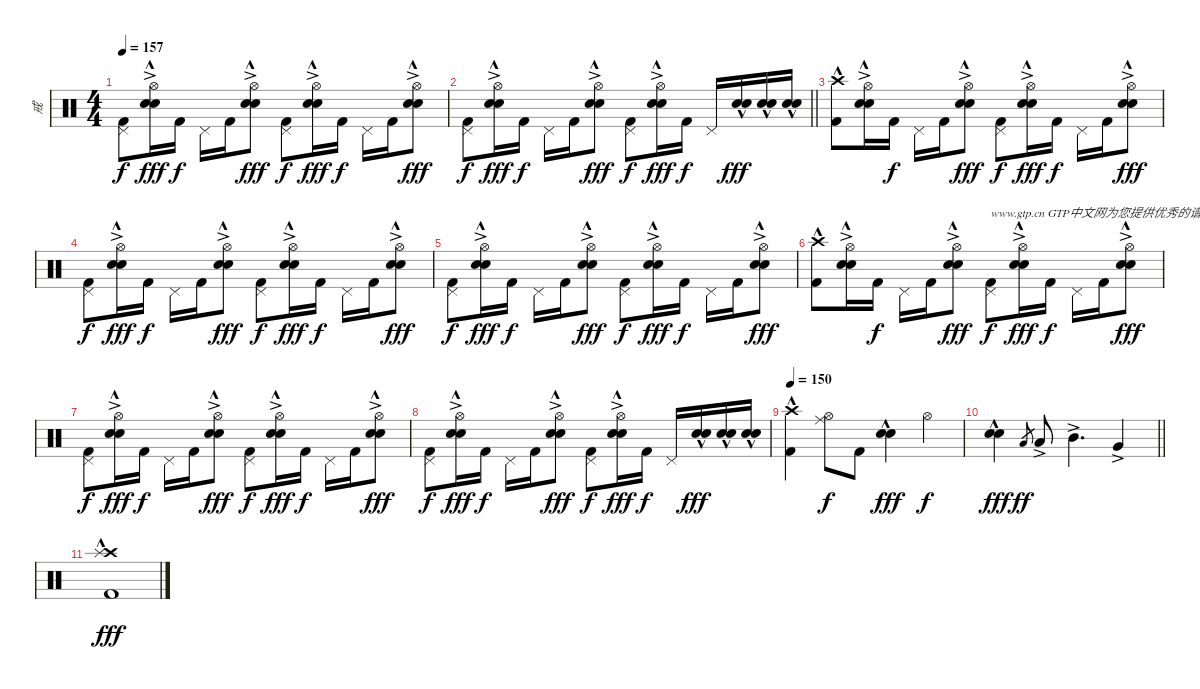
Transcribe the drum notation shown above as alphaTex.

\track ("戒" "戒") {instrument percussion}
\staff {score}
\articulation defaults
\ts (4 4)
\tempo 157
\clef neutral
\ks c
("Pedal Hi-Hat (hit)" "Kick (hit) 2").8{dy f} ("Hi-Hat (open)"{ac} "Electric Snare (hit)"{hac} "Snare (hit) 2").16{dy fff} "Kick (hit) 2".16{dy f} "Pedal Hi-Hat (hit)".16 "Kick (hit) 2".16 ("Hi-Hat (open)"{ac} "Electric Snare (hit)"{hac} "Snare (hit) 2").8{dy fff} ("Pedal Hi-Hat (hit)" "Kick (hit) 2").8{dy f} ("Hi-Hat (open)"{ac} "Electric Snare (hit)"{hac} "Snare (hit) 2").16{dy fff} "Kick (hit) 2".16{dy f} "Pedal Hi-Hat (hit)".16 "Kick (hit) 2".16 ("Hi-Hat (open)"{ac} "Electric Snare (hit)"{hac} "Snare (hit) 2").8{dy fff} |
\barLineRight lightlight
("Pedal Hi-Hat (hit)" "Kick (hit) 2").8{dy f} ("Hi-Hat (open)"{ac} "Electric Snare (hit)"{hac} "Snare (hit) 2").16{dy fff} "Kick (hit) 2".16{dy f} "Pedal Hi-Hat (hit)".16 "Kick (hit) 2".16 ("Hi-Hat (open)"{ac} "Electric Snare (hit)"{hac} "Snare (hit) 2").8{dy fff} ("Pedal Hi-Hat (hit)" "Kick (hit) 2").8{dy f} ("Hi-Hat (open)"{ac} "Electric Snare (hit)"{hac} "Snare (hit) 2").16{dy fff} "Kick (hit) 2".16{dy f} "Pedal Hi-Hat (hit)".16 ("Electric Snare (hit)"{hac} "Snare (hit) 2").16{dy fff} ("Electric Snare (hit)"{hac} "Snare (hit) 2").16 ("Electric Snare (hit)"{hac} "Snare (hit) 2").16 |
\section ("" "")
("Crash high (hit)"{hac} "Kick (hit) 2").8 ("Hi-Hat (open)"{ac} "Electric Snare (hit)"{hac} "Snare (hit) 2").16 "Kick (hit) 2".16{dy f} "Pedal Hi-Hat (hit)".16 "Kick (hit) 2".16 ("Hi-Hat (open)"{ac} "Electric Snare (hit)"{hac} "Snare (hit) 2").8{dy fff} ("Pedal Hi-Hat (hit)" "Kick (hit) 2").8{dy f} ("Hi-Hat (open)"{ac} "Electric Snare (hit)"{hac} "Snare (hit) 2").16{dy fff} "Kick (hit) 2".16{dy f} "Pedal Hi-Hat (hit)".16 "Kick (hit) 2".16 ("Hi-Hat (open)"{ac} "Electric Snare (hit)"{hac} "Snare (hit) 2").8{dy fff} |
("Pedal Hi-Hat (hit)" "Kick (hit) 2").8{dy f} ("Hi-Hat (open)"{ac} "Electric Snare (hit)"{hac} "Snare (hit) 2").16{dy fff} "Kick (hit) 2".16{dy f} "Pedal Hi-Hat (hit)".16 "Kick (hit) 2".16 ("Hi-Hat (open)"{ac} "Electric Snare (hit)"{hac} "Snare (hit) 2").8{dy fff} ("Pedal Hi-Hat (hit)" "Kick (hit) 2").8{dy f} ("Hi-Hat (open)"{ac} "Electric Snare (hit)"{hac} "Snare (hit) 2").16{dy fff} "Kick (hit) 2".16{dy f} "Pedal Hi-Hat (hit)".16 "Kick (hit) 2".16 ("Hi-Hat (open)"{ac} "Electric Snare (hit)"{hac} "Snare (hit) 2").8{dy fff} |
("Pedal Hi-Hat (hit)" "Kick (hit) 2").8{dy f} ("Hi-Hat (open)"{ac} "Electric Snare (hit)"{hac} "Snare (hit) 2").16{dy fff} "Kick (hit) 2".16{dy f} "Pedal Hi-Hat (hit)".16 "Kick (hit) 2".16 ("Hi-Hat (open)"{ac} "Electric Snare (hit)"{hac} "Snare (hit) 2").8{dy fff} ("Pedal Hi-Hat (hit)" "Kick (hit) 2").8{dy f} ("Hi-Hat (open)"{ac} "Electric Snare (hit)"{hac} "Snare (hit) 2").16{dy fff} "Kick (hit) 2".16{dy f} "Pedal Hi-Hat (hit)".16 "Kick (hit) 2".16 ("Hi-Hat (open)"{ac} "Electric Snare (hit)"{hac} "Snare (hit) 2").8{dy fff} |
("Crash high (hit)"{hac} "Kick (hit) 2").8 ("Hi-Hat (open)"{ac} "Electric Snare (hit)"{hac} "Snare (hit) 2").16 "Kick (hit) 2".16{dy f} "Pedal Hi-Hat (hit)".16 "Kick (hit) 2".16 ("Hi-Hat (open)"{ac} "Electric Snare (hit)"{hac} "Snare (hit) 2").8{dy fff} ("Pedal Hi-Hat (hit)" "Kick (hit) 2").8{txt "www.gtp.cn GTP中文网为您提供优秀的谱子" dy f} ("Hi-Hat (open)"{ac} "Electric Snare (hit)"{hac} "Snare (hit) 2").16{dy fff} "Kick (hit) 2".16{dy f} "Pedal Hi-Hat (hit)".16 "Kick (hit) 2".16 ("Hi-Hat (open)"{ac} "Electric Snare (hit)"{hac} "Snare (hit) 2").8{dy fff} |
("Pedal Hi-Hat (hit)" "Kick (hit) 2").8{dy f} ("Hi-Hat (open)"{ac} "Electric Snare (hit)"{hac} "Snare (hit) 2").16{dy fff} "Kick (hit) 2".16{dy f} "Pedal Hi-Hat (hit)".16 "Kick (hit) 2".16 ("Hi-Hat (open)"{ac} "Electric Snare (hit)"{hac} "Snare (hit) 2").8{dy fff} ("Pedal Hi-Hat (hit)" "Kick (hit) 2").8{dy f} ("Hi-Hat (open)"{ac} "Electric Snare (hit)"{hac} "Snare (hit) 2").16{dy fff} "Kick (hit) 2".16{dy f} "Pedal Hi-Hat (hit)".16 "Kick (hit) 2".16 ("Hi-Hat (open)"{ac} "Electric Snare (hit)"{hac} "Snare (hit) 2").8{dy fff} |
("Pedal Hi-Hat (hit)" "Kick (hit) 2").8{dy f} ("Hi-Hat (open)"{ac} "Electric Snare (hit)"{hac} "Snare (hit) 2").16{dy fff} "Kick (hit) 2".16{dy f} "Pedal Hi-Hat (hit)".16 "Kick (hit) 2".16 ("Hi-Hat (open)"{ac} "Electric Snare (hit)"{hac} "Snare (hit) 2").8{dy fff} ("Pedal Hi-Hat (hit)" "Kick (hit) 2").8{dy f} ("Hi-Hat (open)"{ac} "Electric Snare (hit)"{hac} "Snare (hit) 2").16{dy fff} "Kick (hit) 2".16{dy f} "Pedal Hi-Hat (hit)".16 ("Electric Snare (hit)"{hac} "Snare (hit) 2").16{dy fff} ("Electric Snare (hit)"{hac} "Snare (hit) 2").16 ("Electric Snare (hit)"{hac} "Snare (hit) 2").16 |
\tempo 150
("Crash high (hit)"{hac} "Kick (hit) 2").4 ("Hi-Hat (open)" "Ride (middle)").8{dy f} "Kick (hit) 2".8 ("Electric Snare (hit)"{hac} "Snare (hit) 2").4{dy fff} "Hi-Hat (open)".4{dy f} |
\barLineRight lightlight
("Electric Snare (hit)"{hac} "Snare (hit) 2").4{dy fff} "Low Tom (hit)".8{gr dy ff} "Low Tom (hit)"{ac}.8 "Mid Tom (hit)"{ac}.4{d} "Very Low Tom (hit)"{ac}.4 |
\section ("" "")
("Crash high (hit)"{hac} "Splash (hit)"{hac} "Kick (hit) 2").1{dy fff}
